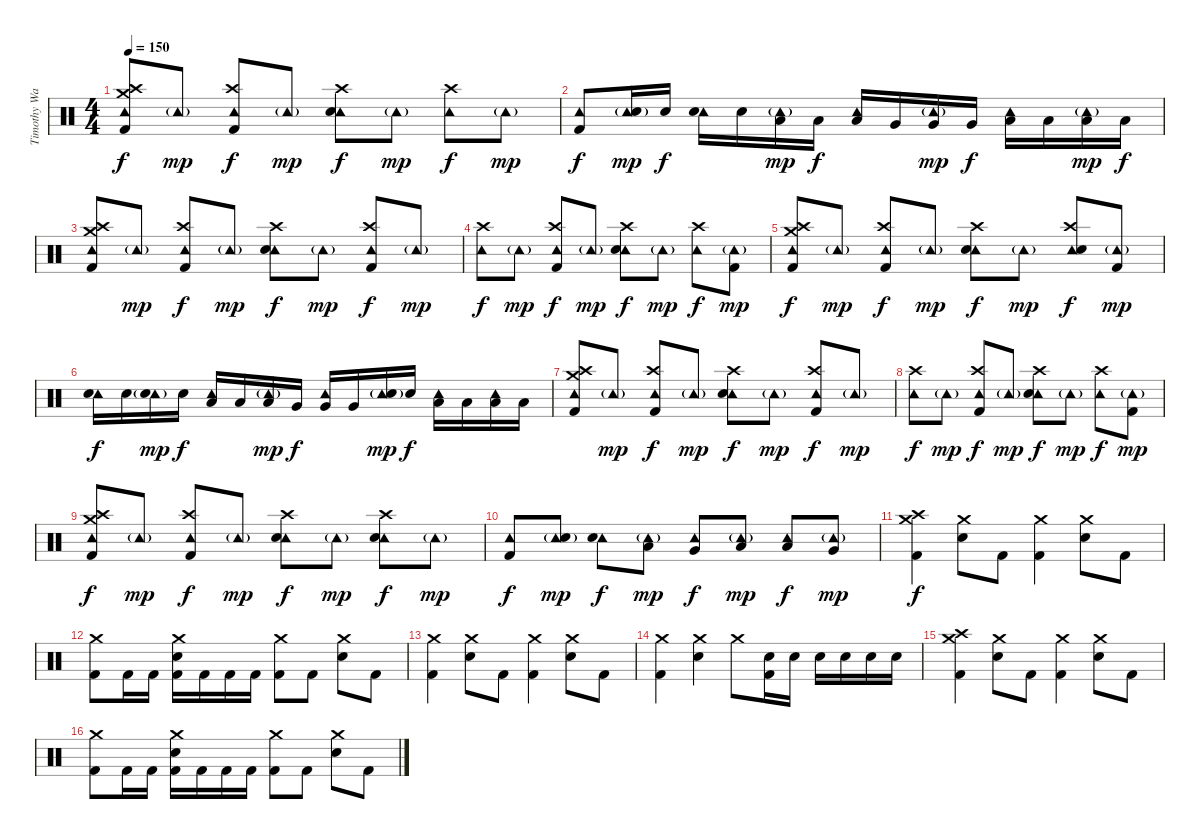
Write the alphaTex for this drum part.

\track ("Timothy Watts" "Timothy Wa") {instrument percussion}
\staff {score}
\articulation defaults
\ts (4 4)
\tempo 150
\clef neutral
\ks c
("Tambourine (hit)" "Crash medium (hit)" "Crash high (hit)" "Kick (hit) 2").8{dy f} "Tambourine (hit)"{g}.8{dy mp} ("Tambourine (hit)" "Crash high (hit)" "Kick (hit) 2").8{dy f} "Tambourine (hit)"{g}.8{dy mp} ("Tambourine (hit)" "Crash high (hit)" "Electric Snare (hit)").8{dy f} "Tambourine (hit)"{g}.8{dy mp} ("Tambourine (hit)" "Crash high (hit)").8{dy f} "Tambourine (hit)"{g}.8{dy mp} |
("Tambourine (hit)" "Kick (hit) 2").8{dy f} ("Tambourine (hit)"{g} "Electric Snare (hit)").16{dy mp} "Electric Snare (hit)".16{dy f} ("Tambourine (hit)" "Electric Snare (hit)").16 "Electric Snare (hit)".16 ("Tambourine (hit)"{g} "Low Tom (hit)").16{dy mp} "Low Tom (hit)".16{dy f} ("Tambourine (hit)" "Low Tom (hit)").16 "Very Low Tom (hit)".16 ("Tambourine (hit)"{g} "Very Low Tom (hit)").16{dy mp} "Very Low Tom (hit)".16{dy f} ("Tambourine (hit)" "Low Floor Tom (hit)").16 "Low Floor Tom (hit)".16 ("Tambourine (hit)"{g} "Low Floor Tom (hit)").16{dy mp} "Low Floor Tom (hit)".16{dy f} |
("Tambourine (hit)" "Crash medium (hit)" "Crash high (hit)" "Kick (hit) 2").8 "Tambourine (hit)"{g}.8{dy mp} ("Tambourine (hit)" "Crash high (hit)" "Kick (hit) 2").8{dy f} "Tambourine (hit)"{g}.8{dy mp} ("Tambourine (hit)" "Crash high (hit)" "Electric Snare (hit)").8{dy f} "Tambourine (hit)"{g}.8{dy mp} ("Tambourine (hit)" "Crash high (hit)" "Kick (hit) 2").8{dy f} "Tambourine (hit)"{g}.8{dy mp} |
("Tambourine (hit)" "Crash high (hit)").8{dy f} "Tambourine (hit)"{g}.8{dy mp} ("Tambourine (hit)" "Crash high (hit)" "Kick (hit) 2").8{dy f} "Tambourine (hit)"{g}.8{dy mp} ("Tambourine (hit)" "Crash high (hit)" "Electric Snare (hit)").8{dy f} "Tambourine (hit)"{g}.8{dy mp} ("Tambourine (hit)" "Crash high (hit)").8{dy f} ("Tambourine (hit)"{g} "Kick (hit) 2").8{dy mp} |
("Tambourine (hit)" "Crash medium (hit)" "Crash high (hit)" "Kick (hit) 2").8{dy f} "Tambourine (hit)"{g}.8{dy mp} ("Tambourine (hit)" "Crash high (hit)" "Kick (hit) 2").8{dy f} "Tambourine (hit)"{g}.8{dy mp} ("Tambourine (hit)" "Crash high (hit)" "Electric Snare (hit)").8{dy f} "Tambourine (hit)"{g}.8{dy mp} ("Tambourine (hit)" "Crash high (hit)" "Electric Snare (hit)").8{dy f} ("Tambourine (hit)"{g} "Kick (hit) 2").8{dy mp} |
("Tambourine (hit)" "Electric Snare (hit)").16{dy f} "Electric Snare (hit)".16 ("Tambourine (hit)"{g} "Electric Snare (hit)").16{dy mp} "Electric Snare (hit)".16{dy f} ("Tambourine (hit)" "Low Tom (hit)").16 "Low Tom (hit)".16 ("Tambourine (hit)"{g} "Low Tom (hit)").16{dy mp} "Very Low Tom (hit)".16{dy f} ("Tambourine (hit)" "Very Low Tom (hit)").16 "Very Low Tom (hit)".16 ("Tambourine (hit)"{g} "Electric Snare (hit)").16{dy mp} "Electric Snare (hit)".16{dy f} ("Tambourine (hit)" "Low Floor Tom (hit)").16 "Low Floor Tom (hit)".16 ("Tambourine (hit)" "Low Floor Tom (hit)").16 "Low Floor Tom (hit)".16 |
("Tambourine (hit)" "Crash medium (hit)" "Crash high (hit)" "Kick (hit) 2").8 "Tambourine (hit)"{g}.8{dy mp} ("Tambourine (hit)" "Crash high (hit)" "Kick (hit) 2").8{dy f} "Tambourine (hit)"{g}.8{dy mp} ("Tambourine (hit)" "Crash high (hit)" "Electric Snare (hit)").8{dy f} "Tambourine (hit)"{g}.8{dy mp} ("Tambourine (hit)" "Crash high (hit)" "Kick (hit) 2").8{dy f} "Tambourine (hit)"{g}.8{dy mp} |
("Tambourine (hit)" "Crash high (hit)").8{dy f} "Tambourine (hit)"{g}.8{dy mp} ("Tambourine (hit)" "Crash high (hit)" "Kick (hit) 2").8{dy f} "Tambourine (hit)"{g}.8{dy mp} ("Tambourine (hit)" "Crash high (hit)" "Electric Snare (hit)").8{dy f} "Tambourine (hit)"{g}.8{dy mp} ("Tambourine (hit)" "Crash high (hit)").8{dy f} ("Tambourine (hit)"{g} "Kick (hit) 2").8{dy mp} |
("Tambourine (hit)" "Crash medium (hit)" "Crash high (hit)" "Kick (hit) 2").8{dy f} "Tambourine (hit)"{g}.8{dy mp} ("Tambourine (hit)" "Crash high (hit)" "Kick (hit) 2").8{dy f} "Tambourine (hit)"{g}.8{dy mp} ("Tambourine (hit)" "Crash high (hit)" "Electric Snare (hit)").8{dy f} "Tambourine (hit)"{g}.8{dy mp} ("Tambourine (hit)" "Crash high (hit)" "Electric Snare (hit)").8{dy f} "Tambourine (hit)"{g}.8{dy mp} |
("Tambourine (hit)" "Kick (hit) 2").8{dy f} ("Tambourine (hit)"{g} "Electric Snare (hit)").8{dy mp} ("Tambourine (hit)" "Electric Snare (hit)").8{dy f} ("Tambourine (hit)"{g} "Low Tom (hit)").8{dy mp} ("Tambourine (hit)" "Very Low Tom (hit)").8{dy f} ("Tambourine (hit)"{g} "Low Floor Tom (hit)").8{dy mp} ("Tambourine (hit)" "Low Tom (hit)").8{dy f} ("Tambourine (hit)"{g} "Very Low Tom (hit)").8{dy mp} |
("Crash medium (hit)" "Crash high (hit)" "Kick (hit) 2").4{dy f} ("Crash medium (hit)" "Electric Snare (hit)").8 "Kick (hit) 2".8 ("Crash medium (hit)" "Kick (hit) 2").4 ("Crash medium (hit)" "Electric Snare (hit)").8 "Kick (hit) 2".8 |
("Crash medium (hit)" "Kick (hit) 2").8 "Kick (hit) 2".16 "Kick (hit) 2".16 ("Crash medium (hit)" "Electric Snare (hit)" "Kick (hit) 2").16 "Kick (hit) 2".16 "Kick (hit) 2".16 "Kick (hit) 2".16 ("Crash medium (hit)" "Kick (hit) 2").8 "Kick (hit) 2".8 ("Crash medium (hit)" "Electric Snare (hit)").8 "Kick (hit) 2".8 |
("Crash medium (hit)" "Kick (hit) 2").4 ("Crash medium (hit)" "Electric Snare (hit)").8 "Kick (hit) 2".8 ("Crash medium (hit)" "Kick (hit) 2").4 ("Crash medium (hit)" "Electric Snare (hit)").8 "Kick (hit) 2".8 |
("Crash medium (hit)" "Kick (hit) 2").4 ("Crash medium (hit)" "Electric Snare (hit)").4 "Crash medium (hit)".8 ("Electric Snare (hit)" "Kick (hit) 2").16 "Electric Snare (hit)".16 "Electric Snare (hit)".16 "Electric Snare (hit)".16 "Electric Snare (hit)".16 "Electric Snare (hit)".16 |
("Crash medium (hit)" "Crash high (hit)" "Kick (hit) 2").4 ("Crash medium (hit)" "Electric Snare (hit)").8 "Kick (hit) 2".8 ("Crash medium (hit)" "Kick (hit) 2").4 ("Crash medium (hit)" "Electric Snare (hit)").8 "Kick (hit) 2".8 |
("Crash medium (hit)" "Kick (hit) 2").8 "Kick (hit) 2".16 "Kick (hit) 2".16 ("Crash medium (hit)" "Electric Snare (hit)" "Kick (hit) 2").16 "Kick (hit) 2".16 "Kick (hit) 2".16 "Kick (hit) 2".16 ("Crash medium (hit)" "Kick (hit) 2").8 "Kick (hit) 2".8 ("Crash medium (hit)" "Electric Snare (hit)").8 "Kick (hit) 2".8
